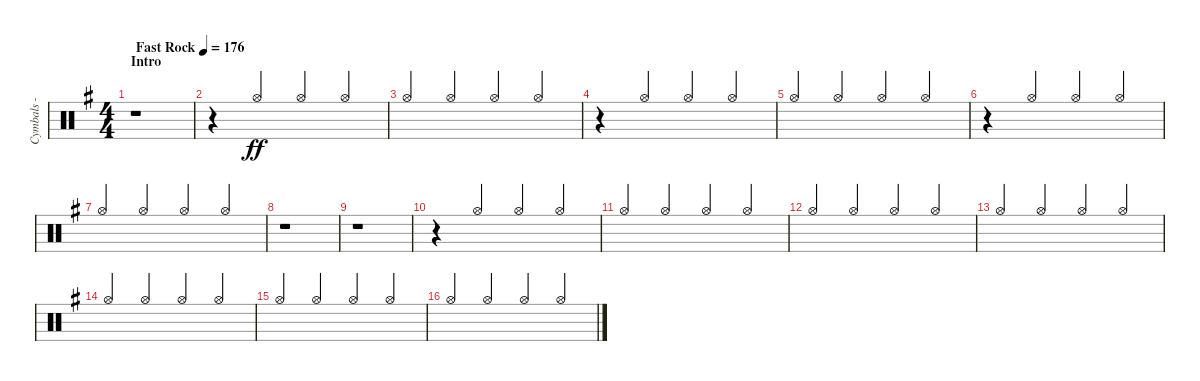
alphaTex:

\track ("Cymbals - hi-hat" "Cymbals - ") {instrument percussion}
\staff {score}
\articulation defaults
\ts (4 4)
\section ("" "Intro")
\tempo (176 "Fast Rock")
\clef neutral
\ks eminor
r.1{dy ff volume 7 balance 11} |
r.4 "Hi-Hat (open)".4{beam Up} "Hi-Hat (open)".4{beam Up} "Hi-Hat (open)".4{beam Up} |
"Hi-Hat (open)".4{beam Up} "Hi-Hat (open)".4{beam Up} "Hi-Hat (open)".4{beam Up} "Hi-Hat (open)".4{beam Up} |
r.4 "Hi-Hat (open)".4{beam Up} "Hi-Hat (open)".4{beam Up} "Hi-Hat (open)".4{beam Up} |
"Hi-Hat (open)".4{beam Up} "Hi-Hat (open)".4{beam Up} "Hi-Hat (open)".4{beam Up} "Hi-Hat (open)".4{beam Up} |
r.4 "Hi-Hat (open)".4{beam Up} "Hi-Hat (open)".4{beam Up} "Hi-Hat (open)".4{beam Up} |
"Hi-Hat (open)".4{beam Up} "Hi-Hat (open)".4{beam Up} "Hi-Hat (open)".4{beam Up} "Hi-Hat (open)".4{beam Up} |
r.1 |
r.1 |
r.4 "Hi-Hat (open)".4{beam Up} "Hi-Hat (open)".4{beam Up} "Hi-Hat (open)".4{beam Up} |
"Hi-Hat (open)".4{beam Up} "Hi-Hat (open)".4{beam Up} "Hi-Hat (open)".4{beam Up} "Hi-Hat (open)".4{beam Up} |
"Hi-Hat (open)".4{beam Up} "Hi-Hat (open)".4{beam Up} "Hi-Hat (open)".4{beam Up} "Hi-Hat (open)".4{beam Up} |
"Hi-Hat (open)".4{beam Up} "Hi-Hat (open)".4{beam Up} "Hi-Hat (open)".4{beam Up} "Hi-Hat (open)".4{beam Up} |
"Hi-Hat (open)".4{beam Up} "Hi-Hat (open)".4{beam Up} "Hi-Hat (open)".4{beam Up} "Hi-Hat (open)".4{beam Up} |
"Hi-Hat (open)".4{beam Up} "Hi-Hat (open)".4{beam Up} "Hi-Hat (open)".4{beam Up} "Hi-Hat (open)".4{beam Up} |
"Hi-Hat (open)".4{beam Up} "Hi-Hat (open)".4{beam Up} "Hi-Hat (open)".4{beam Up} "Hi-Hat (open)".4{beam Up}
